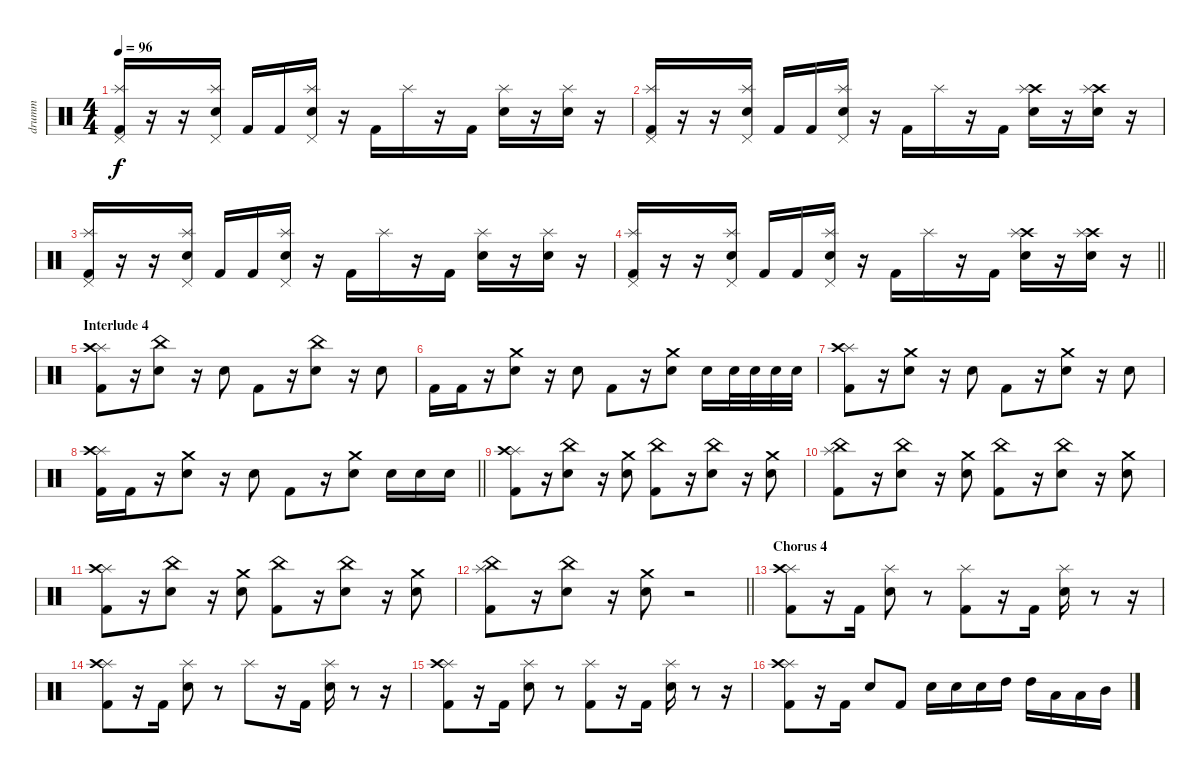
\track ("drumm" "drumm") {instrument percussion}
\staff {score}
\articulation defaults
\ts (4 4)
\tempo 96
\clef neutral
\ks c
("Pedal Hi-Hat (hit)" "Splash (hit)" "Kick (hit) 2").16{dy f} r.16 r.16 ("Pedal Hi-Hat (hit)" "Splash (hit)" "Electric Snare (hit)").16 "Kick (hit) 2".16 "Kick (hit) 2".16 ("Pedal Hi-Hat (hit)" "Splash (hit)" "Electric Snare (hit)").16 r.16 "Kick (hit) 2".16 "Splash (hit)".16 r.16 "Kick (hit) 2".16 ("Splash (hit)" "Electric Snare (hit)").16 r.16 ("Splash (hit)" "Electric Snare (hit)").16 r.16 |
("Pedal Hi-Hat (hit)" "Splash (hit)" "Kick (hit) 2").16 r.16 r.16 ("Pedal Hi-Hat (hit)" "Splash (hit)" "Electric Snare (hit)").16 "Kick (hit) 2".16 "Kick (hit) 2".16 ("Pedal Hi-Hat (hit)" "Splash (hit)" "Electric Snare (hit)").16 r.16 "Kick (hit) 2".16 "Splash (hit)".16 r.16 "Kick (hit) 2".16 ("Crash high (hit)" "Splash (hit)" "Electric Snare (hit)").16 r.16 ("Crash high (hit)" "Splash (hit)" "Electric Snare (hit)").16 r.16 |
("Pedal Hi-Hat (hit)" "Splash (hit)" "Kick (hit) 2").16 r.16 r.16 ("Pedal Hi-Hat (hit)" "Splash (hit)" "Electric Snare (hit)").16 "Kick (hit) 2".16 "Kick (hit) 2".16 ("Pedal Hi-Hat (hit)" "Splash (hit)" "Electric Snare (hit)").16 r.16 "Kick (hit) 2".16 "Splash (hit)".16 r.16 "Kick (hit) 2".16 ("Splash (hit)" "Electric Snare (hit)").16 r.16 ("Splash (hit)" "Electric Snare (hit)").16 r.16 |
\barLineRight lightlight
("Pedal Hi-Hat (hit)" "Splash (hit)" "Kick (hit) 2").16 r.16 r.16 ("Pedal Hi-Hat (hit)" "Splash (hit)" "Electric Snare (hit)").16 "Kick (hit) 2".16 "Kick (hit) 2".16 ("Pedal Hi-Hat (hit)" "Splash (hit)" "Electric Snare (hit)").16 r.16 "Kick (hit) 2".16 "Splash (hit)".16 r.16 "Kick (hit) 2".16 ("Crash high (hit)" "Splash (hit)" "Electric Snare (hit)").16 r.16 ("Crash high (hit)" "Splash (hit)" "Electric Snare (hit)").16 r.16 |
\section ("" "Interlude 4")
("Splash (hit)" "Crash high (hit)" "Kick (hit) 2").8 r.16 ("China (hit)" "Electric Snare (hit)").8 r.16 "Electric Snare (hit)".8 "Kick (hit) 2".8 r.16 ("China (hit)" "Electric Snare (hit)").8 r.16 "Electric Snare (hit)".8 |
"Kick (hit) 2".16 "Kick (hit) 2".16 r.16 ("Crash medium (hit)" "Electric Snare (hit)").8 r.16 "Electric Snare (hit)".8 "Kick (hit) 2".8 r.16 ("Crash medium (hit)" "Electric Snare (hit)").8 "Electric Snare (hit)".16 "Electric Snare (hit)".32 "Electric Snare (hit)".32 "Electric Snare (hit)".32 "Electric Snare (hit)".32 |
("Splash (hit)" "Crash high (hit)" "Kick (hit) 2").8 r.16 ("Crash medium (hit)" "Electric Snare (hit)").8 r.16 "Electric Snare (hit)".8 "Kick (hit) 2".8 r.16 ("Crash medium (hit)" "Electric Snare (hit)").8 r.16 "Electric Snare (hit)".8 |
\barLineRight lightlight
("Splash (hit)" "Crash high (hit)" "Kick (hit) 2").16 "Kick (hit) 2".16 r.16 ("Crash medium (hit)" "Electric Snare (hit)").8 r.16 "Electric Snare (hit)".8 "Kick (hit) 2".8 r.16 ("Crash medium (hit)" "Electric Snare (hit)").8 "Electric Snare (hit)".16 "Electric Snare (hit)".16 "Electric Snare (hit)".16 |
("Splash (hit)" "Crash high (hit)" "Kick (hit) 2").8 r.16 ("China (hit)" "Electric Snare (hit)").8 r.16 ("Crash medium (hit)" "Electric Snare (hit)").8 ("China (hit)" "Kick (hit) 2").8 r.16 ("China (hit)" "Electric Snare (hit)").8 r.16 ("Crash medium (hit)" "Electric Snare (hit)").8 |
("China (hit)" "Splash (hit)" "Kick (hit) 2").8 r.16 ("China (hit)" "Electric Snare (hit)").8 r.16 ("Crash medium (hit)" "Electric Snare (hit)").8 ("China (hit)" "Kick (hit) 2").8 r.16 ("China (hit)" "Electric Snare (hit)").8 r.16 ("Crash medium (hit)" "Electric Snare (hit)").8 |
("Splash (hit)" "Crash high (hit)" "Kick (hit) 2").8 r.16 ("China (hit)" "Electric Snare (hit)").8 r.16 ("Crash medium (hit)" "Electric Snare (hit)").8 ("China (hit)" "Kick (hit) 2").8 r.16 ("China (hit)" "Electric Snare (hit)").8 r.16 ("Crash medium (hit)" "Electric Snare (hit)").8 |
\barLineRight lightlight
("China (hit)" "Splash (hit)" "Kick (hit) 2").8 r.16 ("China (hit)" "Electric Snare (hit)").8 r.16 ("Crash medium (hit)" "Electric Snare (hit)").8 r.2 |
\section ("" "Chorus 4")
("Splash (hit)" "Crash high (hit)" "Kick (hit) 2").8 r.16 "Kick (hit) 2".16 ("Splash (hit)" "Electric Snare (hit)").8 r.8 ("Splash (hit)" "Kick (hit) 2").8 r.16 "Kick (hit) 2".16 ("Splash (hit)" "Electric Snare (hit)").16 r.8 r.16 |
("Splash (hit)" "Crash high (hit)" "Kick (hit) 2").8 r.16 "Kick (hit) 2".16 ("Splash (hit)" "Electric Snare (hit)").8 r.8 "Splash (hit)".8 r.16 "Kick (hit) 2".16 ("Splash (hit)" "Electric Snare (hit)").16 r.8 r.16 |
("Splash (hit)" "Crash high (hit)" "Kick (hit) 2").8 r.16 "Kick (hit) 2".16 ("Splash (hit)" "Electric Snare (hit)").8 r.8 ("Splash (hit)" "Kick (hit) 2").8 r.16 "Kick (hit) 2".16 ("Splash (hit)" "Electric Snare (hit)").16 r.8 r.16 |
("Splash (hit)" "Crash high (hit)" "Kick (hit) 2").8 r.16 "Kick (hit) 2".16 "Electric Snare (hit)".8 "Kick (hit) 2".8 "Electric Snare (hit)".16 "Electric Snare (hit)".16 "Electric Snare (hit)".16 "High Tom (hit)".16 "High Tom (hit)".16 "Low Tom (hit)".16 "Low Tom (hit)".16 "Mid Tom (hit)".16
